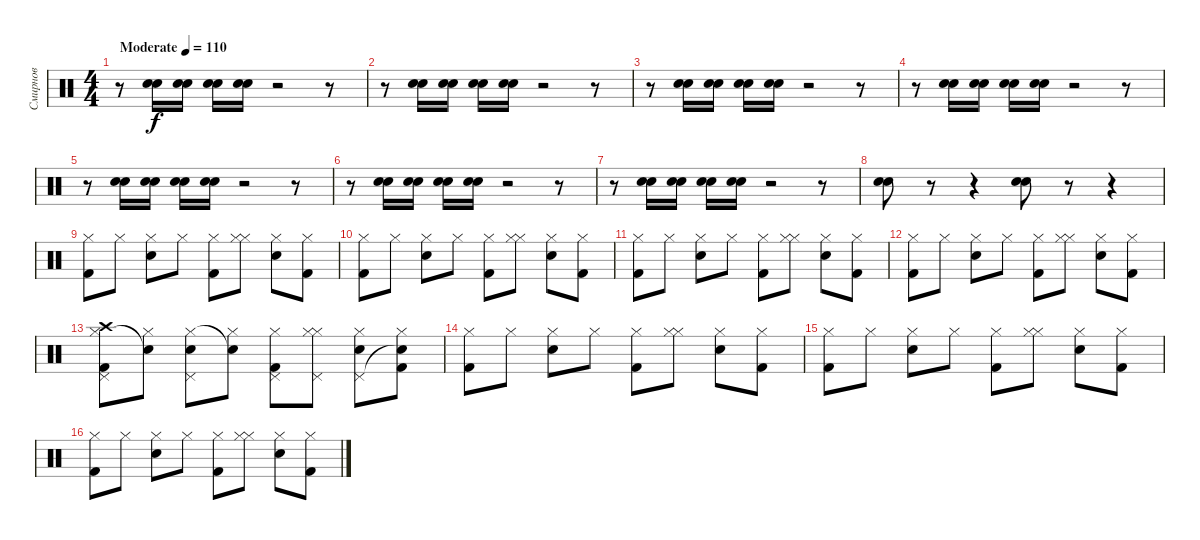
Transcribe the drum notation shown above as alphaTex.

\track ("Смирнов" "Смирнов") {instrument percussion}
\staff {score}
\articulation defaults
\ts (4 4)
\tempo (110 "Moderate")
\clef neutral
\ks c
r.8{dy f} ("Snare (hit) 2" "Electric Snare (hit)").16 ("Snare (hit) 2" "Electric Snare (hit)").16 ("Snare (hit) 2" "Electric Snare (hit)").16 ("Snare (hit) 2" "Electric Snare (hit)").16 r.2 r.8 |
r.8 ("Snare (hit) 2" "Electric Snare (hit)").16 ("Snare (hit) 2" "Electric Snare (hit)").16 ("Snare (hit) 2" "Electric Snare (hit)").16 ("Snare (hit) 2" "Electric Snare (hit)").16 r.2 r.8 |
r.8 ("Snare (hit) 2" "Electric Snare (hit)").16 ("Snare (hit) 2" "Electric Snare (hit)").16 ("Snare (hit) 2" "Electric Snare (hit)").16 ("Snare (hit) 2" "Electric Snare (hit)").16 r.2 r.8 |
r.8 ("Snare (hit) 2" "Electric Snare (hit)").16 ("Snare (hit) 2" "Electric Snare (hit)").16 ("Snare (hit) 2" "Electric Snare (hit)").16 ("Snare (hit) 2" "Electric Snare (hit)").16 r.2 r.8 |
r.8 ("Snare (hit) 2" "Electric Snare (hit)").16 ("Snare (hit) 2" "Electric Snare (hit)").16 ("Snare (hit) 2" "Electric Snare (hit)").16 ("Snare (hit) 2" "Electric Snare (hit)").16 r.2 r.8 |
r.8 ("Snare (hit) 2" "Electric Snare (hit)").16 ("Snare (hit) 2" "Electric Snare (hit)").16 ("Snare (hit) 2" "Electric Snare (hit)").16 ("Snare (hit) 2" "Electric Snare (hit)").16 r.2 r.8 |
r.8 ("Snare (hit) 2" "Electric Snare (hit)").16 ("Snare (hit) 2" "Electric Snare (hit)").16 ("Snare (hit) 2" "Electric Snare (hit)").16 ("Snare (hit) 2" "Electric Snare (hit)").16 r.2 r.8 |
("Snare (hit) 2" "Electric Snare (hit)").8 r.8 r.4 ("Electric Snare (hit)" "Snare (hit) 2").8 r.8 r.4 |
("Kick (hit) 2" "Hi-Hat (closed)").8 "Hi-Hat (closed)".8 ("Snare (hit) 2" "Hi-Hat (closed)").8 "Hi-Hat (closed)".8 ("Kick (hit) 2" "Hi-Hat (closed)").8 ("Hi-Hat (closed)" "Hi-Hat (closed)").8 ("Snare (hit) 2" "Hi-Hat (closed)").8 ("Kick (hit) 2" "Hi-Hat (closed)").8 |
("Kick (hit) 2" "Hi-Hat (closed)").8 "Hi-Hat (closed)".8 ("Snare (hit) 2" "Hi-Hat (closed)").8 "Hi-Hat (closed)".8 ("Kick (hit) 2" "Hi-Hat (closed)").8 ("Hi-Hat (closed)" "Hi-Hat (closed)").8 ("Snare (hit) 2" "Hi-Hat (closed)").8 ("Kick (hit) 2" "Hi-Hat (closed)").8 |
("Kick (hit) 2" "Hi-Hat (closed)").8 "Hi-Hat (closed)".8 ("Snare (hit) 2" "Hi-Hat (closed)").8 "Hi-Hat (closed)".8 ("Kick (hit) 2" "Hi-Hat (closed)").8 ("Hi-Hat (closed)" "Hi-Hat (closed)").8 ("Snare (hit) 2" "Hi-Hat (closed)").8 ("Kick (hit) 2" "Hi-Hat (closed)").8 |
("Kick (hit) 2" "Hi-Hat (closed)").8 "Hi-Hat (closed)".8 ("Snare (hit) 2" "Hi-Hat (closed)").8 "Hi-Hat (closed)".8 ("Kick (hit) 2" "Hi-Hat (closed)").8 ("Hi-Hat (closed)" "Hi-Hat (closed)").8 ("Snare (hit) 2" "Hi-Hat (closed)").8 ("Kick (hit) 2" "Hi-Hat (closed)").8 |
("Kick (hit) 2" "Hi-Hat (closed)" "Crash high (hit)" "Pedal Hi-Hat (hit)").8 ("Hi-Hat (closed)" "Snare (hit)"{t}).8 ("Snare (hit) 2" "Hi-Hat (closed)" "Pedal Hi-Hat (hit)").8 ("Hi-Hat (closed)" "Snare (hit)"{t}).8 ("Kick (hit) 2" "Hi-Hat (closed)" "Pedal Hi-Hat (hit)").8 ("Hi-Hat (closed)" "Hi-Hat (closed)" "Pedal Hi-Hat (hit)").8 ("Snare (hit) 2" "Hi-Hat (closed)" "Pedal Hi-Hat (hit)").8 ("Kick (hit) 2" "Hi-Hat (closed)" "Snare (hit)"{t}).8 |
("Kick (hit) 2" "Hi-Hat (closed)").8 "Hi-Hat (closed)".8 ("Snare (hit) 2" "Hi-Hat (closed)").8 "Hi-Hat (closed)".8 ("Kick (hit) 2" "Hi-Hat (closed)").8 ("Hi-Hat (closed)" "Hi-Hat (closed)").8 ("Snare (hit) 2" "Hi-Hat (closed)").8 ("Kick (hit) 2" "Hi-Hat (closed)").8 |
("Kick (hit) 2" "Hi-Hat (closed)").8 "Hi-Hat (closed)".8 ("Snare (hit) 2" "Hi-Hat (closed)").8 "Hi-Hat (closed)".8 ("Kick (hit) 2" "Hi-Hat (closed)").8 ("Hi-Hat (closed)" "Hi-Hat (closed)").8 ("Snare (hit) 2" "Hi-Hat (closed)").8 ("Kick (hit) 2" "Hi-Hat (closed)").8 |
("Kick (hit) 2" "Hi-Hat (closed)").8 "Hi-Hat (closed)".8 ("Snare (hit) 2" "Hi-Hat (closed)").8 "Hi-Hat (closed)".8 ("Kick (hit) 2" "Hi-Hat (closed)").8 ("Hi-Hat (closed)" "Hi-Hat (closed)").8 ("Snare (hit) 2" "Hi-Hat (closed)").8 ("Kick (hit) 2" "Hi-Hat (closed)").8
